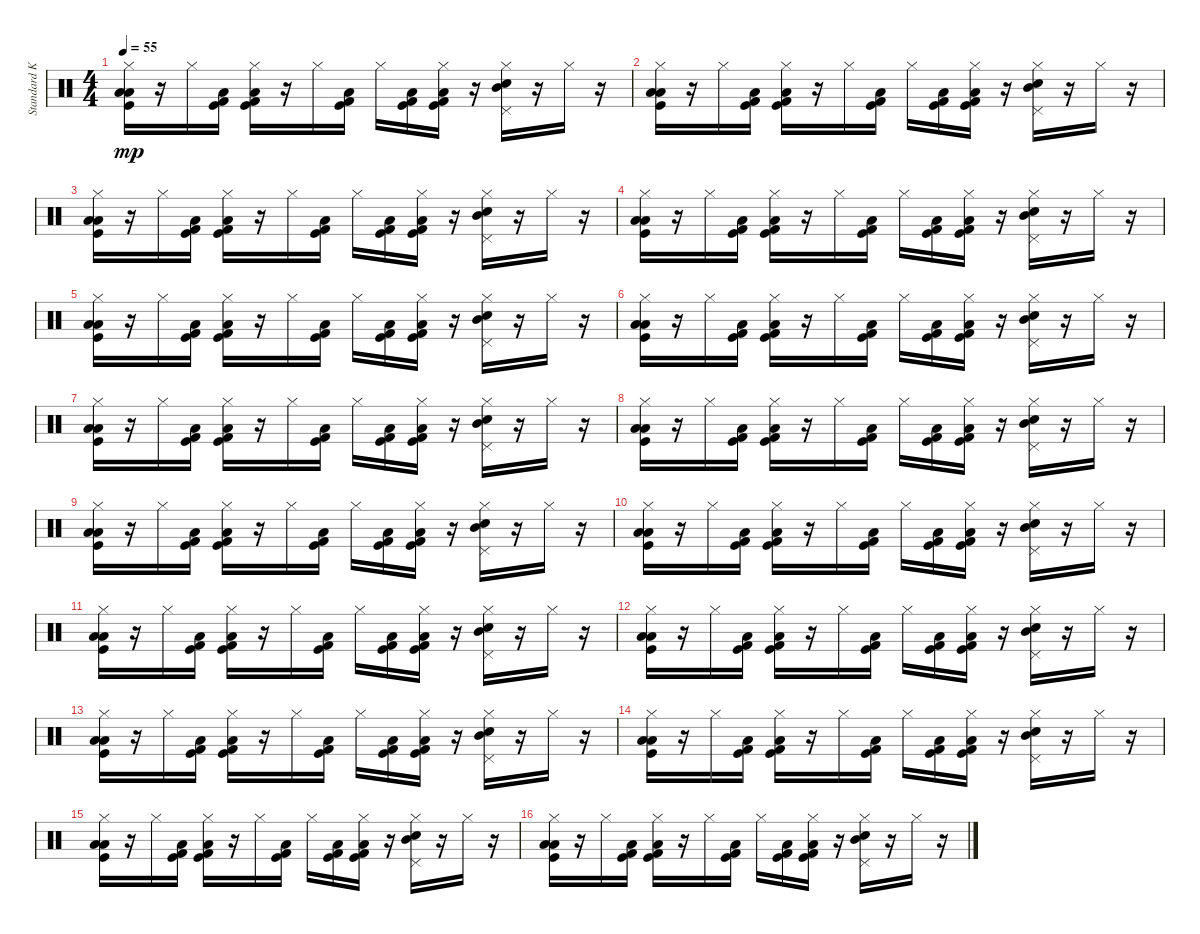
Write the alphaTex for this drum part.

\track ("Standard Kit" "Standard K") {instrument percussion}
\staff {score}
\articulation defaults
\ts (4 4)
\tempo 55
\clef neutral
\ks c
("Kick (hit)" "Low Floor Tom (hit)" "Low Floor Tom (hit)" "Hi-Hat (closed)").16{dy mp} r.16 "Hi-Hat (closed)".16 ("Kick (hit)" "Kick (hit) 2" "Low Floor Tom (hit)").16 ("Kick (hit)" "Kick (hit) 2" "Low Floor Tom (hit)" "Hi-Hat (closed)").16 r.16 "Hi-Hat (closed)".16 ("Kick (hit)" "Kick (hit) 2" "Low Floor Tom (hit)").16 "Hi-Hat (closed)".16 ("Kick (hit)" "Kick (hit) 2" "Low Floor Tom (hit)").16 ("Kick (hit)" "Kick (hit) 2" "Low Floor Tom (hit)" "Hi-Hat (closed)").16 r.16 ("Electric Snare (hit)" "Pedal Hi-Hat (hit)" "Mid Tom (hit)" "Hi-Hat (closed)").16 r.16 "Hi-Hat (closed)".16 r.16 |
("Kick (hit)" "Low Floor Tom (hit)" "Low Floor Tom (hit)" "Hi-Hat (closed)").16 r.16 "Hi-Hat (closed)".16 ("Kick (hit)" "Kick (hit) 2" "Low Floor Tom (hit)").16 ("Kick (hit)" "Kick (hit) 2" "Low Floor Tom (hit)" "Hi-Hat (closed)").16 r.16 "Hi-Hat (closed)".16 ("Kick (hit)" "Kick (hit) 2" "Low Floor Tom (hit)").16 "Hi-Hat (closed)".16 ("Kick (hit)" "Kick (hit) 2" "Low Floor Tom (hit)").16 ("Kick (hit)" "Kick (hit) 2" "Low Floor Tom (hit)" "Hi-Hat (closed)").16 r.16 ("Electric Snare (hit)" "Pedal Hi-Hat (hit)" "Mid Tom (hit)" "Hi-Hat (closed)").16 r.16 "Hi-Hat (closed)".16 r.16 |
("Kick (hit)" "Low Floor Tom (hit)" "Low Floor Tom (hit)" "Hi-Hat (closed)").16 r.16 "Hi-Hat (closed)".16 ("Kick (hit)" "Kick (hit) 2" "Low Floor Tom (hit)").16 ("Kick (hit)" "Kick (hit) 2" "Low Floor Tom (hit)" "Hi-Hat (closed)").16 r.16 "Hi-Hat (closed)".16 ("Kick (hit)" "Kick (hit) 2" "Low Floor Tom (hit)").16 "Hi-Hat (closed)".16 ("Kick (hit)" "Kick (hit) 2" "Low Floor Tom (hit)").16 ("Kick (hit)" "Kick (hit) 2" "Low Floor Tom (hit)" "Hi-Hat (closed)").16 r.16 ("Electric Snare (hit)" "Pedal Hi-Hat (hit)" "Mid Tom (hit)" "Hi-Hat (closed)").16 r.16 "Hi-Hat (closed)".16 r.16 |
("Kick (hit)" "Low Floor Tom (hit)" "Low Floor Tom (hit)" "Hi-Hat (closed)").16 r.16 "Hi-Hat (closed)".16 ("Kick (hit)" "Kick (hit) 2" "Low Floor Tom (hit)").16 ("Kick (hit)" "Kick (hit) 2" "Low Floor Tom (hit)" "Hi-Hat (closed)").16 r.16 "Hi-Hat (closed)".16 ("Kick (hit)" "Kick (hit) 2" "Low Floor Tom (hit)").16 "Hi-Hat (closed)".16 ("Kick (hit)" "Kick (hit) 2" "Low Floor Tom (hit)").16 ("Kick (hit)" "Kick (hit) 2" "Low Floor Tom (hit)" "Hi-Hat (closed)").16 r.16 ("Electric Snare (hit)" "Pedal Hi-Hat (hit)" "Mid Tom (hit)" "Hi-Hat (closed)").16 r.16 "Hi-Hat (closed)".16 r.16 |
("Kick (hit)" "Low Floor Tom (hit)" "Low Floor Tom (hit)" "Hi-Hat (closed)").16 r.16 "Hi-Hat (closed)".16 ("Kick (hit)" "Kick (hit) 2" "Low Floor Tom (hit)").16 ("Kick (hit)" "Kick (hit) 2" "Low Floor Tom (hit)" "Hi-Hat (closed)").16 r.16 "Hi-Hat (closed)".16 ("Kick (hit)" "Kick (hit) 2" "Low Floor Tom (hit)").16 "Hi-Hat (closed)".16 ("Kick (hit)" "Kick (hit) 2" "Low Floor Tom (hit)").16 ("Kick (hit)" "Kick (hit) 2" "Low Floor Tom (hit)" "Hi-Hat (closed)").16 r.16 ("Electric Snare (hit)" "Pedal Hi-Hat (hit)" "Mid Tom (hit)" "Hi-Hat (closed)").16 r.16 "Hi-Hat (closed)".16 r.16 |
("Kick (hit)" "Low Floor Tom (hit)" "Low Floor Tom (hit)" "Hi-Hat (closed)").16 r.16 "Hi-Hat (closed)".16 ("Kick (hit)" "Kick (hit) 2" "Low Floor Tom (hit)").16 ("Kick (hit)" "Kick (hit) 2" "Low Floor Tom (hit)" "Hi-Hat (closed)").16 r.16 "Hi-Hat (closed)".16 ("Kick (hit)" "Kick (hit) 2" "Low Floor Tom (hit)").16 "Hi-Hat (closed)".16 ("Kick (hit)" "Kick (hit) 2" "Low Floor Tom (hit)").16 ("Kick (hit)" "Kick (hit) 2" "Low Floor Tom (hit)" "Hi-Hat (closed)").16 r.16 ("Electric Snare (hit)" "Pedal Hi-Hat (hit)" "Mid Tom (hit)" "Hi-Hat (closed)").16 r.16 "Hi-Hat (closed)".16 r.16 |
("Kick (hit)" "Low Floor Tom (hit)" "Low Floor Tom (hit)" "Hi-Hat (closed)").16 r.16 "Hi-Hat (closed)".16 ("Kick (hit)" "Kick (hit) 2" "Low Floor Tom (hit)").16 ("Kick (hit)" "Kick (hit) 2" "Low Floor Tom (hit)" "Hi-Hat (closed)").16 r.16 "Hi-Hat (closed)".16 ("Kick (hit)" "Kick (hit) 2" "Low Floor Tom (hit)").16 "Hi-Hat (closed)".16 ("Kick (hit)" "Kick (hit) 2" "Low Floor Tom (hit)").16 ("Kick (hit)" "Kick (hit) 2" "Low Floor Tom (hit)" "Hi-Hat (closed)").16 r.16 ("Electric Snare (hit)" "Pedal Hi-Hat (hit)" "Mid Tom (hit)" "Hi-Hat (closed)").16 r.16 "Hi-Hat (closed)".16 r.16 |
("Kick (hit)" "Low Floor Tom (hit)" "Low Floor Tom (hit)" "Hi-Hat (closed)").16 r.16 "Hi-Hat (closed)".16 ("Kick (hit)" "Kick (hit) 2" "Low Floor Tom (hit)").16 ("Kick (hit)" "Kick (hit) 2" "Low Floor Tom (hit)" "Hi-Hat (closed)").16 r.16 "Hi-Hat (closed)".16 ("Kick (hit)" "Kick (hit) 2" "Low Floor Tom (hit)").16 "Hi-Hat (closed)".16 ("Kick (hit)" "Kick (hit) 2" "Low Floor Tom (hit)").16 ("Kick (hit)" "Kick (hit) 2" "Low Floor Tom (hit)" "Hi-Hat (closed)").16 r.16 ("Electric Snare (hit)" "Pedal Hi-Hat (hit)" "Mid Tom (hit)" "Hi-Hat (closed)").16 r.16 "Hi-Hat (closed)".16 r.16 |
("Kick (hit)" "Low Floor Tom (hit)" "Low Floor Tom (hit)" "Hi-Hat (closed)").16 r.16 "Hi-Hat (closed)".16 ("Kick (hit)" "Kick (hit) 2" "Low Floor Tom (hit)").16 ("Kick (hit)" "Kick (hit) 2" "Low Floor Tom (hit)" "Hi-Hat (closed)").16 r.16 "Hi-Hat (closed)".16 ("Kick (hit)" "Kick (hit) 2" "Low Floor Tom (hit)").16 "Hi-Hat (closed)".16 ("Kick (hit)" "Kick (hit) 2" "Low Floor Tom (hit)").16 ("Kick (hit)" "Kick (hit) 2" "Low Floor Tom (hit)" "Hi-Hat (closed)").16 r.16 ("Electric Snare (hit)" "Pedal Hi-Hat (hit)" "Mid Tom (hit)" "Hi-Hat (closed)").16 r.16 "Hi-Hat (closed)".16 r.16 |
("Kick (hit)" "Low Floor Tom (hit)" "Low Floor Tom (hit)" "Hi-Hat (closed)").16 r.16 "Hi-Hat (closed)".16 ("Kick (hit)" "Kick (hit) 2" "Low Floor Tom (hit)").16 ("Kick (hit)" "Kick (hit) 2" "Low Floor Tom (hit)" "Hi-Hat (closed)").16 r.16 "Hi-Hat (closed)".16 ("Kick (hit)" "Kick (hit) 2" "Low Floor Tom (hit)").16 "Hi-Hat (closed)".16 ("Kick (hit)" "Kick (hit) 2" "Low Floor Tom (hit)").16 ("Kick (hit)" "Kick (hit) 2" "Low Floor Tom (hit)" "Hi-Hat (closed)").16 r.16 ("Electric Snare (hit)" "Pedal Hi-Hat (hit)" "Mid Tom (hit)" "Hi-Hat (closed)").16 r.16 "Hi-Hat (closed)".16 r.16 |
("Kick (hit)" "Low Floor Tom (hit)" "Low Floor Tom (hit)" "Hi-Hat (closed)").16 r.16 "Hi-Hat (closed)".16 ("Kick (hit)" "Kick (hit) 2" "Low Floor Tom (hit)").16 ("Kick (hit)" "Kick (hit) 2" "Low Floor Tom (hit)" "Hi-Hat (closed)").16 r.16 "Hi-Hat (closed)".16 ("Kick (hit)" "Kick (hit) 2" "Low Floor Tom (hit)").16 "Hi-Hat (closed)".16 ("Kick (hit)" "Kick (hit) 2" "Low Floor Tom (hit)").16 ("Kick (hit)" "Kick (hit) 2" "Low Floor Tom (hit)" "Hi-Hat (closed)").16 r.16 ("Electric Snare (hit)" "Pedal Hi-Hat (hit)" "Mid Tom (hit)" "Hi-Hat (closed)").16 r.16 "Hi-Hat (closed)".16 r.16 |
("Kick (hit)" "Low Floor Tom (hit)" "Low Floor Tom (hit)" "Hi-Hat (closed)").16 r.16 "Hi-Hat (closed)".16 ("Kick (hit)" "Kick (hit) 2" "Low Floor Tom (hit)").16 ("Kick (hit)" "Kick (hit) 2" "Low Floor Tom (hit)" "Hi-Hat (closed)").16 r.16 "Hi-Hat (closed)".16 ("Kick (hit)" "Kick (hit) 2" "Low Floor Tom (hit)").16 "Hi-Hat (closed)".16 ("Kick (hit)" "Kick (hit) 2" "Low Floor Tom (hit)").16 ("Kick (hit)" "Kick (hit) 2" "Low Floor Tom (hit)" "Hi-Hat (closed)").16 r.16 ("Electric Snare (hit)" "Pedal Hi-Hat (hit)" "Mid Tom (hit)" "Hi-Hat (closed)").16 r.16 "Hi-Hat (closed)".16 r.16 |
("Kick (hit)" "Low Floor Tom (hit)" "Low Floor Tom (hit)" "Hi-Hat (closed)").16 r.16 "Hi-Hat (closed)".16 ("Kick (hit)" "Kick (hit) 2" "Low Floor Tom (hit)").16 ("Kick (hit)" "Kick (hit) 2" "Low Floor Tom (hit)" "Hi-Hat (closed)").16 r.16 "Hi-Hat (closed)".16 ("Kick (hit)" "Kick (hit) 2" "Low Floor Tom (hit)").16 "Hi-Hat (closed)".16 ("Kick (hit)" "Kick (hit) 2" "Low Floor Tom (hit)").16 ("Kick (hit)" "Kick (hit) 2" "Low Floor Tom (hit)" "Hi-Hat (closed)").16 r.16 ("Electric Snare (hit)" "Pedal Hi-Hat (hit)" "Mid Tom (hit)" "Hi-Hat (closed)").16 r.16 "Hi-Hat (closed)".16 r.16 |
("Kick (hit)" "Low Floor Tom (hit)" "Low Floor Tom (hit)" "Hi-Hat (closed)").16 r.16 "Hi-Hat (closed)".16 ("Kick (hit)" "Kick (hit) 2" "Low Floor Tom (hit)").16 ("Kick (hit)" "Kick (hit) 2" "Low Floor Tom (hit)" "Hi-Hat (closed)").16 r.16 "Hi-Hat (closed)".16 ("Kick (hit)" "Kick (hit) 2" "Low Floor Tom (hit)").16 "Hi-Hat (closed)".16 ("Kick (hit)" "Kick (hit) 2" "Low Floor Tom (hit)").16 ("Kick (hit)" "Kick (hit) 2" "Low Floor Tom (hit)" "Hi-Hat (closed)").16 r.16 ("Electric Snare (hit)" "Pedal Hi-Hat (hit)" "Mid Tom (hit)" "Hi-Hat (closed)").16 r.16 "Hi-Hat (closed)".16 r.16 |
("Kick (hit)" "Low Floor Tom (hit)" "Low Floor Tom (hit)" "Hi-Hat (closed)").16 r.16 "Hi-Hat (closed)".16 ("Kick (hit)" "Kick (hit) 2" "Low Floor Tom (hit)").16 ("Kick (hit)" "Kick (hit) 2" "Low Floor Tom (hit)" "Hi-Hat (closed)").16 r.16 "Hi-Hat (closed)".16 ("Kick (hit)" "Kick (hit) 2" "Low Floor Tom (hit)").16 "Hi-Hat (closed)".16 ("Kick (hit)" "Kick (hit) 2" "Low Floor Tom (hit)").16 ("Kick (hit)" "Kick (hit) 2" "Low Floor Tom (hit)" "Hi-Hat (closed)").16 r.16 ("Electric Snare (hit)" "Pedal Hi-Hat (hit)" "Mid Tom (hit)" "Hi-Hat (closed)").16 r.16 "Hi-Hat (closed)".16 r.16 |
("Kick (hit)" "Low Floor Tom (hit)" "Low Floor Tom (hit)" "Hi-Hat (closed)").16 r.16 "Hi-Hat (closed)".16 ("Kick (hit)" "Kick (hit) 2" "Low Floor Tom (hit)").16 ("Kick (hit)" "Kick (hit) 2" "Low Floor Tom (hit)" "Hi-Hat (closed)").16 r.16 "Hi-Hat (closed)".16 ("Kick (hit)" "Kick (hit) 2" "Low Floor Tom (hit)").16 "Hi-Hat (closed)".16 ("Kick (hit)" "Kick (hit) 2" "Low Floor Tom (hit)").16 ("Kick (hit)" "Kick (hit) 2" "Low Floor Tom (hit)" "Hi-Hat (closed)").16 r.16 ("Electric Snare (hit)" "Pedal Hi-Hat (hit)" "Mid Tom (hit)" "Hi-Hat (closed)").16 r.16 "Hi-Hat (closed)".16 r.16
